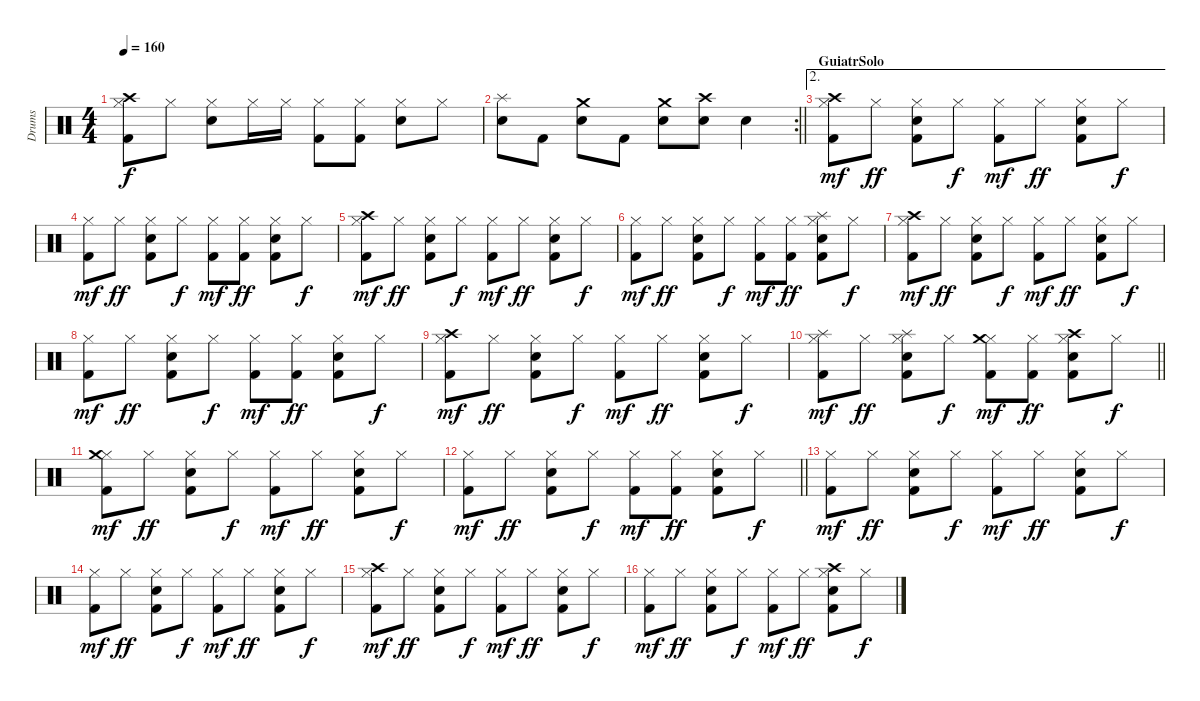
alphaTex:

\track ("Drums" "Drums") {instrument percussion}
\staff {score}
\articulation defaults
\ts (4 4)
\tempo 160
\clef neutral
\ks c
("Hi-Hat (closed)" "Crash high (hit)" "Kick (hit) 2").8{dy f} "Hi-Hat (closed)".8 ("Hi-Hat (closed)" "Electric Snare (hit)").8 "Hi-Hat (closed)".16 "Hi-Hat (closed)".16 ("Hi-Hat (closed)" "Kick (hit) 2").8 ("Hi-Hat (closed)" "Kick (hit) 2").8 ("Hi-Hat (closed)" "Electric Snare (hit)").8 "Hi-Hat (closed)".8 |
\rc 2
\barLineRight lightlight
("Splash (hit)" "Electric Snare (hit)").8 "Kick (hit) 2".8 ("Crash medium (hit)" "Electric Snare (hit)").8 "Kick (hit) 2".8 ("Crash medium (hit)" "Electric Snare (hit)").8 ("Crash high (hit)" "Electric Snare (hit)").8 "Electric Snare (hit)".4 |
\ae 2
\section ("" "GuiatrSolo")
("Hi-Hat (closed)" "Crash high (hit)" "Kick (hit) 2").8{dy mf} "Hi-Hat (closed)".8{dy ff} ("Hi-Hat (closed)" "Electric Snare (hit)" "Kick (hit) 2").8 "Hi-Hat (closed)".8{dy f} ("Hi-Hat (closed)" "Kick (hit) 2").8{dy mf} "Hi-Hat (closed)".8{dy ff} ("Hi-Hat (closed)" "Electric Snare (hit)" "Kick (hit) 2").8 "Hi-Hat (closed)".8{dy f} |
("Hi-Hat (closed)" "Kick (hit) 2").8{dy mf} "Hi-Hat (closed)".8{dy ff} ("Hi-Hat (closed)" "Electric Snare (hit)" "Kick (hit) 2").8 "Hi-Hat (closed)".8{dy f} ("Hi-Hat (closed)" "Kick (hit) 2").8{dy mf} ("Hi-Hat (closed)" "Kick (hit) 2").8{dy ff} ("Hi-Hat (closed)" "Electric Snare (hit)" "Kick (hit) 2").8 "Hi-Hat (closed)".8{dy f} |
("Hi-Hat (closed)" "Crash high (hit)" "Kick (hit) 2").8{dy mf} "Hi-Hat (closed)".8{dy ff} ("Hi-Hat (closed)" "Electric Snare (hit)" "Kick (hit) 2").8 "Hi-Hat (closed)".8{dy f} ("Hi-Hat (closed)" "Kick (hit) 2").8{dy mf} "Hi-Hat (closed)".8{dy ff} ("Hi-Hat (closed)" "Electric Snare (hit)" "Kick (hit) 2").8 "Hi-Hat (closed)".8{dy f} |
("Hi-Hat (closed)" "Kick (hit) 2").8{dy mf} "Hi-Hat (closed)".8{dy ff} ("Hi-Hat (closed)" "Electric Snare (hit)" "Kick (hit) 2").8 "Hi-Hat (closed)".8{dy f} ("Hi-Hat (closed)" "Kick (hit) 2").8{dy mf} ("Hi-Hat (closed)" "Kick (hit) 2").8{dy ff} ("Hi-Hat (closed)" "Electric Snare (hit)" "Splash (hit)" "Kick (hit) 2").8 "Hi-Hat (closed)".8{dy f} |
("Hi-Hat (closed)" "Crash high (hit)" "Kick (hit) 2").8{dy mf} "Hi-Hat (closed)".8{dy ff} ("Hi-Hat (closed)" "Electric Snare (hit)" "Kick (hit) 2").8 "Hi-Hat (closed)".8{dy f} ("Hi-Hat (closed)" "Kick (hit) 2").8{dy mf} "Hi-Hat (closed)".8{dy ff} ("Hi-Hat (closed)" "Electric Snare (hit)" "Kick (hit) 2").8 "Hi-Hat (closed)".8{dy f} |
("Hi-Hat (closed)" "Kick (hit) 2").8{dy mf} "Hi-Hat (closed)".8{dy ff} ("Hi-Hat (closed)" "Electric Snare (hit)" "Kick (hit) 2").8 "Hi-Hat (closed)".8{dy f} ("Hi-Hat (closed)" "Kick (hit) 2").8{dy mf} ("Hi-Hat (closed)" "Kick (hit) 2").8{dy ff} ("Hi-Hat (closed)" "Electric Snare (hit)" "Kick (hit) 2").8 "Hi-Hat (closed)".8{dy f} |
("Hi-Hat (closed)" "Crash high (hit)" "Kick (hit) 2").8{dy mf} "Hi-Hat (closed)".8{dy ff} ("Hi-Hat (closed)" "Electric Snare (hit)" "Kick (hit) 2").8 "Hi-Hat (closed)".8{dy f} ("Hi-Hat (closed)" "Kick (hit) 2").8{dy mf} "Hi-Hat (closed)".8{dy ff} ("Hi-Hat (closed)" "Electric Snare (hit)" "Kick (hit) 2").8 "Hi-Hat (closed)".8{dy f} |
\barLineRight lightlight
("Hi-Hat (closed)" "Splash (hit)" "Kick (hit) 2").8{dy mf} "Hi-Hat (closed)".8{dy ff} ("Hi-Hat (closed)" "Electric Snare (hit)" "Splash (hit)" "Kick (hit) 2").8 "Hi-Hat (closed)".8{dy f} ("Hi-Hat (closed)" "Crash medium (hit)" "Kick (hit) 2").8{dy mf} ("Hi-Hat (closed)" "Kick (hit) 2").8{dy ff} ("Hi-Hat (closed)" "Electric Snare (hit)" "Crash high (hit)" "Kick (hit) 2").8 "Hi-Hat (closed)".8{dy f} |
("Hi-Hat (closed)" "Crash medium (hit)" "Kick (hit) 2").8{dy mf} "Hi-Hat (closed)".8{dy ff} ("Hi-Hat (closed)" "Electric Snare (hit)" "Kick (hit) 2").8 "Hi-Hat (closed)".8{dy f} ("Hi-Hat (closed)" "Kick (hit) 2").8{dy mf} "Hi-Hat (closed)".8{dy ff} ("Hi-Hat (closed)" "Electric Snare (hit)" "Kick (hit) 2").8 "Hi-Hat (closed)".8{dy f} |
\barLineRight lightlight
("Hi-Hat (closed)" "Kick (hit) 2").8{dy mf} "Hi-Hat (closed)".8{dy ff} ("Hi-Hat (closed)" "Electric Snare (hit)" "Kick (hit) 2").8 "Hi-Hat (closed)".8{dy f} ("Hi-Hat (closed)" "Kick (hit) 2").8{dy mf} ("Hi-Hat (closed)" "Kick (hit) 2").8{dy ff} ("Hi-Hat (closed)" "Electric Snare (hit)" "Kick (hit) 2").8 "Hi-Hat (closed)".8{dy f} |
("Hi-Hat (closed)" "Kick (hit) 2").8{dy mf} "Hi-Hat (closed)".8{dy ff} ("Hi-Hat (closed)" "Electric Snare (hit)" "Kick (hit) 2").8 "Hi-Hat (closed)".8{dy f} ("Hi-Hat (closed)" "Kick (hit) 2").8{dy mf} "Hi-Hat (closed)".8{dy ff} ("Hi-Hat (closed)" "Electric Snare (hit)" "Kick (hit) 2").8 "Hi-Hat (closed)".8{dy f} |
("Hi-Hat (closed)" "Kick (hit) 2").8{dy mf} "Hi-Hat (closed)".8{dy ff} ("Hi-Hat (closed)" "Electric Snare (hit)" "Kick (hit) 2").8 "Hi-Hat (closed)".8{dy f} ("Hi-Hat (closed)" "Kick (hit) 2").8{dy mf} "Hi-Hat (closed)".8{dy ff} ("Hi-Hat (closed)" "Electric Snare (hit)" "Kick (hit) 2").8 "Hi-Hat (closed)".8{dy f} |
("Hi-Hat (closed)" "Crash high (hit)" "Kick (hit) 2").8{dy mf} "Hi-Hat (closed)".8{dy ff} ("Hi-Hat (closed)" "Electric Snare (hit)" "Kick (hit) 2").8 "Hi-Hat (closed)".8{dy f} ("Hi-Hat (closed)" "Kick (hit) 2").8{dy mf} "Hi-Hat (closed)".8{dy ff} ("Hi-Hat (closed)" "Electric Snare (hit)" "Kick (hit) 2").8 "Hi-Hat (closed)".8{dy f} |
("Hi-Hat (closed)" "Kick (hit) 2").8{dy mf} "Hi-Hat (closed)".8{dy ff} ("Hi-Hat (closed)" "Electric Snare (hit)" "Kick (hit) 2").8 "Hi-Hat (closed)".8{dy f} ("Hi-Hat (closed)" "Kick (hit) 2").8{dy mf} "Hi-Hat (closed)".8{dy ff} ("Hi-Hat (closed)" "Electric Snare (hit)" "Crash high (hit)" "Kick (hit) 2").8 "Hi-Hat (closed)".8{dy f}
